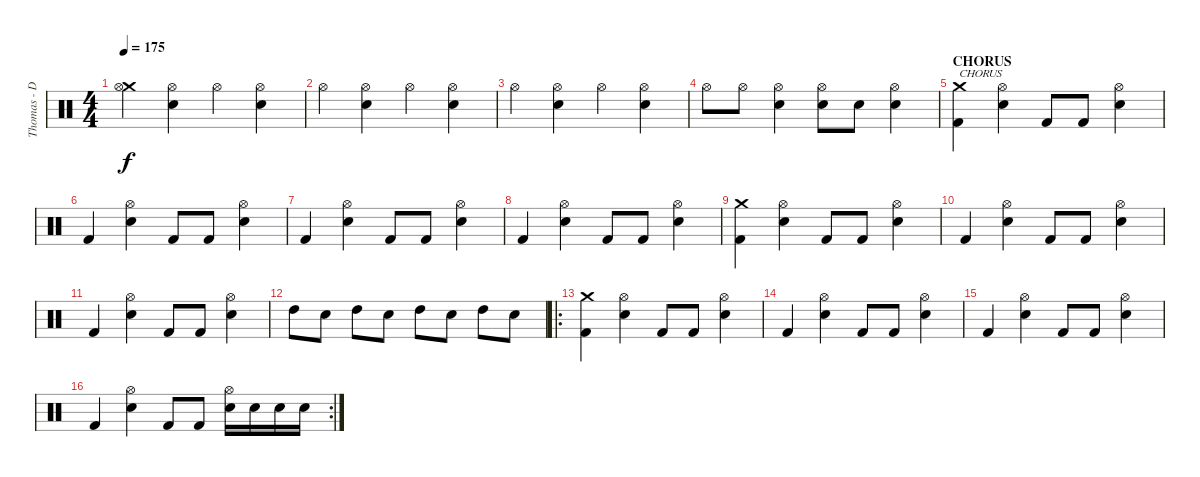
\track ("Thomas - Drums" "Thomas - D") {instrument percussion}
\staff {score}
\articulation defaults
\ts (4 4)
\tempo 175
\clef neutral
\ks c
("Crash medium (hit)" "Hi-Hat (open)").4{dy f} ("Electric Snare (hit)" "Hi-Hat (open)").4 "Hi-Hat (open)".4 ("Electric Snare (hit)" "Hi-Hat (open)").4 |
"Hi-Hat (open)".4 ("Electric Snare (hit)" "Hi-Hat (open)").4 "Hi-Hat (open)".4 ("Electric Snare (hit)" "Hi-Hat (open)").4 |
"Hi-Hat (open)".4 ("Electric Snare (hit)" "Hi-Hat (open)").4 "Hi-Hat (open)".4 ("Electric Snare (hit)" "Hi-Hat (open)").4 |
"Hi-Hat (open)".8 "Hi-Hat (open)".8 ("Electric Snare (hit)" "Hi-Hat (open)").4 ("Electric Snare (hit)" "Hi-Hat (open)").8 "Electric Snare (hit)".8 ("Electric Snare (hit)" "Hi-Hat (open)").4 |
\section ("" "CHORUS")
("Crash medium (hit)" "Kick (hit) 2").4{txt "CHORUS"} ("Hi-Hat (open)" "Electric Snare (hit)").4 "Kick (hit) 2".8 "Kick (hit) 2".8 ("Hi-Hat (open)" "Electric Snare (hit)").4 |
"Kick (hit) 2".4 ("Hi-Hat (open)" "Electric Snare (hit)").4 "Kick (hit) 2".8 "Kick (hit) 2".8 ("Hi-Hat (open)" "Electric Snare (hit)").4 |
"Kick (hit) 2".4 ("Hi-Hat (open)" "Electric Snare (hit)").4 "Kick (hit) 2".8 "Kick (hit) 2".8 ("Hi-Hat (open)" "Electric Snare (hit)").4 |
"Kick (hit) 2".4 ("Hi-Hat (open)" "Electric Snare (hit)").4 "Kick (hit) 2".8 "Kick (hit) 2".8 ("Hi-Hat (open)" "Electric Snare (hit)").4 |
("Crash medium (hit)" "Kick (hit) 2").4 ("Hi-Hat (open)" "Electric Snare (hit)").4 "Kick (hit) 2".8 "Kick (hit) 2".8 ("Hi-Hat (open)" "Electric Snare (hit)").4 |
"Kick (hit) 2".4 ("Hi-Hat (open)" "Electric Snare (hit)").4 "Kick (hit) 2".8 "Kick (hit) 2".8 ("Hi-Hat (open)" "Electric Snare (hit)").4 |
"Kick (hit) 2".4 ("Hi-Hat (open)" "Electric Snare (hit)").4 "Kick (hit) 2".8 "Kick (hit) 2".8 ("Hi-Hat (open)" "Electric Snare (hit)").4 |
"High Tom (hit)".8 "Electric Snare (hit)".8 "High Tom (hit)".8 "Electric Snare (hit)".8 "High Tom (hit)".8 "Electric Snare (hit)".8 "High Tom (hit)".8 "Electric Snare (hit)".8 |
\ro
("Crash medium (hit)" "Kick (hit) 2").4 ("Hi-Hat (open)" "Electric Snare (hit)").4 "Kick (hit) 2".8 "Kick (hit) 2".8 ("Hi-Hat (open)" "Electric Snare (hit)").4 |
"Kick (hit) 2".4 ("Hi-Hat (open)" "Electric Snare (hit)").4 "Kick (hit) 2".8 "Kick (hit) 2".8 ("Hi-Hat (open)" "Electric Snare (hit)").4 |
"Kick (hit) 2".4 ("Hi-Hat (open)" "Electric Snare (hit)").4 "Kick (hit) 2".8 "Kick (hit) 2".8 ("Hi-Hat (open)" "Electric Snare (hit)").4 |
\rc 2 "Kick (hit) 2".4
("Hi-Hat (open)" "Electric Snare (hit)").4 "Kick (hit) 2".8 "Kick (hit) 2".8 ("Hi-Hat (open)" "Electric Snare (hit)").16 "Electric Snare (hit)".16 "Electric Snare (hit)".16 "Electric Snare (hit)".16
